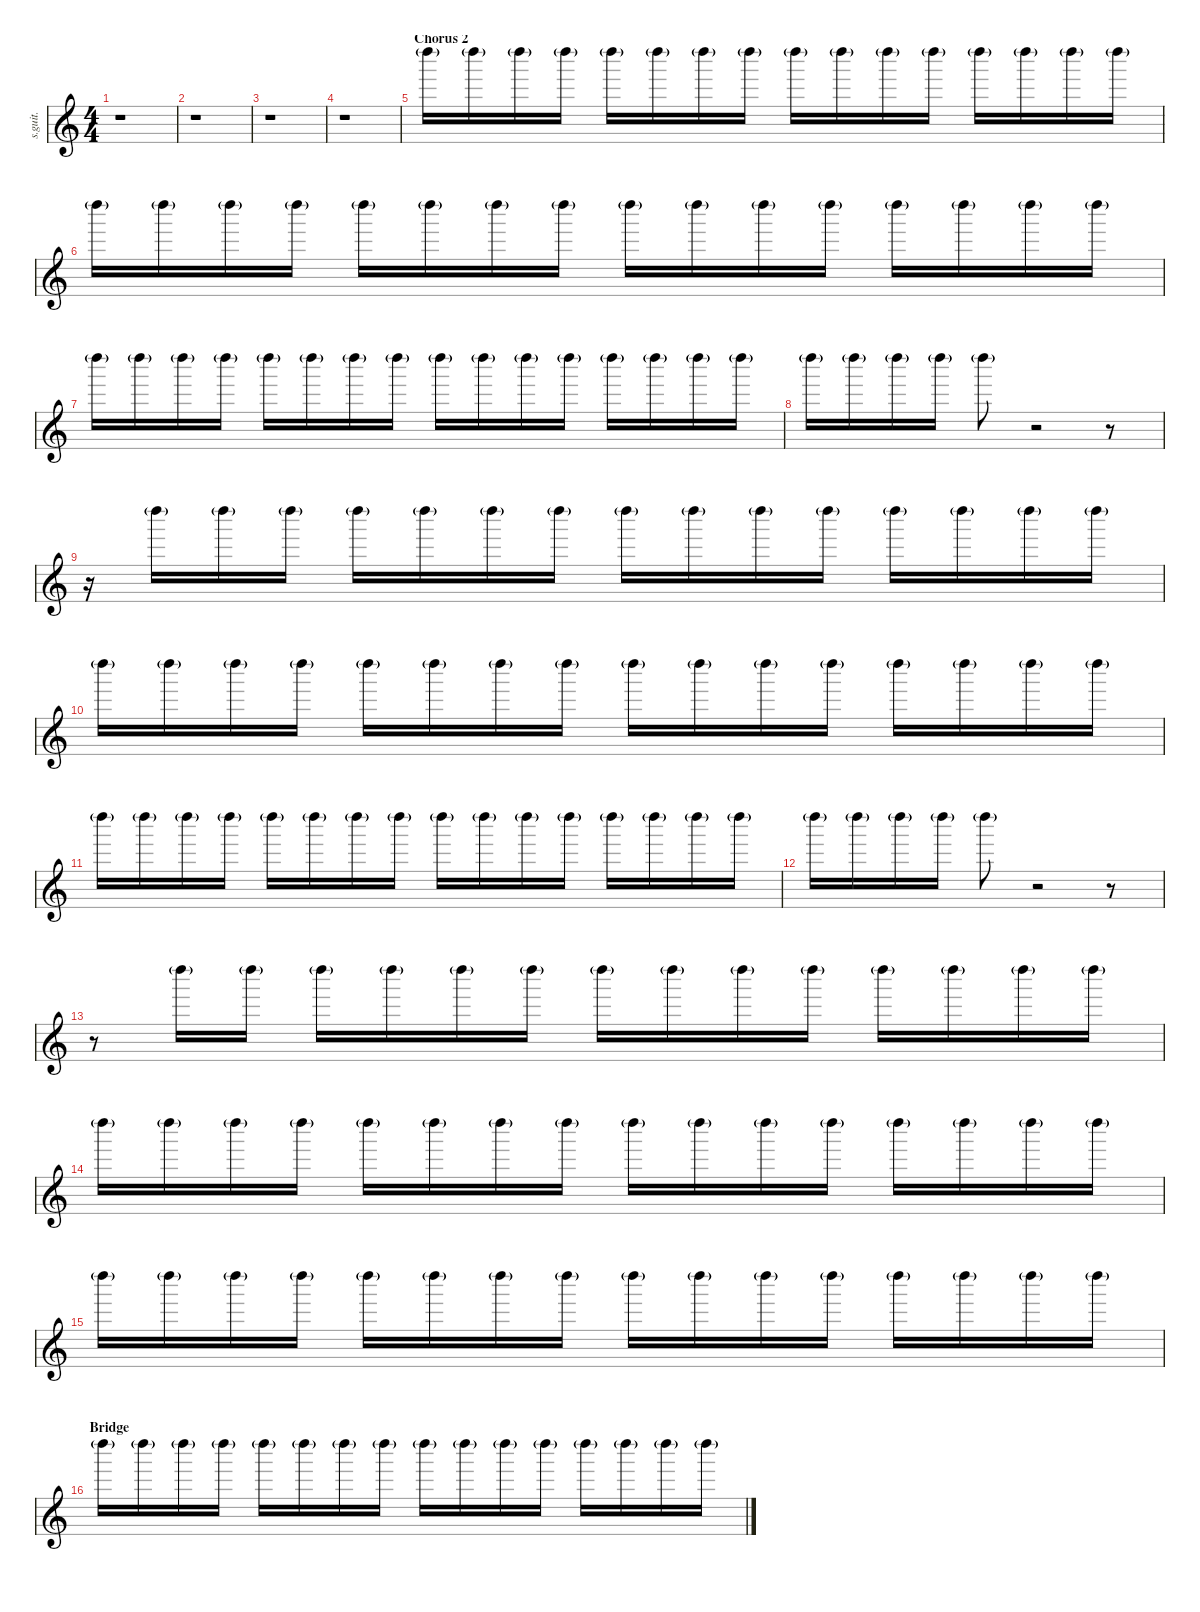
\defaultSystemsLayout 4
\hideDynamics
\bracketExtendMode nobrackets
\track ("Shaker" "s.guit.") {instrument percussion}
\staff {score}
\articulation defaults
\ts (4 4)
\tempo (90 hide)
\clef g2
\ks c
r.1{dy mp} |
\tempo (89 hide)
r.1 |
\tempo (90 hide)
r.1 |
r.1 |
\section ("" "Chorus 2")
\tempo (89 hide)
"Left Maraca (hit)"{g}.16{lyrics (0 "") lyrics (1 "") lyrics (2 "") lyrics (3 "") lyrics (4 "")} "Left Maraca (hit)"{g}.16{lyrics (0 "") lyrics (1 "") lyrics (2 "") lyrics (3 "") lyrics (4 "") dy p} "Left Maraca (hit)"{g}.16{lyrics (0 "") lyrics (1 "") lyrics (2 "") lyrics (3 "") lyrics (4 "")} "Left Maraca (hit)"{g}.16{lyrics (0 "") lyrics (1 "") lyrics (2 "") lyrics (3 "") lyrics (4 "")} "Left Maraca (hit)"{g}.16{lyrics (0 "") lyrics (1 "") lyrics (2 "") lyrics (3 "") lyrics (4 "") dy mp} "Left Maraca (hit)"{g}.16{lyrics (0 "") lyrics (1 "") lyrics (2 "") lyrics (3 "") lyrics (4 "") dy p} "Left Maraca (hit)"{g}.16{lyrics (0 "") lyrics (1 "") lyrics (2 "") lyrics (3 "") lyrics (4 "")} "Left Maraca (hit)"{g}.16{lyrics (0 "") lyrics (1 "") lyrics (2 "") lyrics (3 "") lyrics (4 "")} "Left Maraca (hit)"{g}.16{lyrics (0 "") lyrics (1 "") lyrics (2 "") lyrics (3 "") lyrics (4 "") dy mp} "Left Maraca (hit)"{g}.16{lyrics (0 "") lyrics (1 "") lyrics (2 "") lyrics (3 "") lyrics (4 "") dy p} "Left Maraca (hit)"{g}.16{lyrics (0 "") lyrics (1 "") lyrics (2 "") lyrics (3 "") lyrics (4 "")} "Left Maraca (hit)"{g}.16{lyrics (0 "") lyrics (1 "") lyrics (2 "") lyrics (3 "") lyrics (4 "")} "Left Maraca (hit)"{g}.16{lyrics (0 "") lyrics (1 "") lyrics (2 "") lyrics (3 "") lyrics (4 "") dy mp} "Left Maraca (hit)"{g}.16{lyrics (0 "") lyrics (1 "") lyrics (2 "") lyrics (3 "") lyrics (4 "") dy p} "Left Maraca (hit)"{g}.16{lyrics (0 "") lyrics (1 "") lyrics (2 "") lyrics (3 "") lyrics (4 "")} "Left Maraca (hit)"{g}.16{lyrics (0 "") lyrics (1 "") lyrics (2 "") lyrics (3 "") lyrics (4 "")} |
"Left Maraca (hit)"{g}.16{lyrics (0 "") lyrics (1 "") lyrics (2 "") lyrics (3 "") lyrics (4 "") dy mp} "Left Maraca (hit)"{g}.16{lyrics (0 "") lyrics (1 "") lyrics (2 "") lyrics (3 "") lyrics (4 "") dy p} "Left Maraca (hit)"{g}.16{lyrics (0 "") lyrics (1 "") lyrics (2 "") lyrics (3 "") lyrics (4 "")} "Left Maraca (hit)"{g}.16{lyrics (0 "") lyrics (1 "") lyrics (2 "") lyrics (3 "") lyrics (4 "")} "Left Maraca (hit)"{g}.16{lyrics (0 "") lyrics (1 "") lyrics (2 "") lyrics (3 "") lyrics (4 "") dy mp} "Left Maraca (hit)"{g}.16{lyrics (0 "") lyrics (1 "") lyrics (2 "") lyrics (3 "") lyrics (4 "") dy p} "Left Maraca (hit)"{g}.16{lyrics (0 "") lyrics (1 "") lyrics (2 "") lyrics (3 "") lyrics (4 "")} "Left Maraca (hit)"{g}.16{lyrics (0 "") lyrics (1 "") lyrics (2 "") lyrics (3 "") lyrics (4 "")} "Left Maraca (hit)"{g}.16{lyrics (0 "") lyrics (1 "") lyrics (2 "") lyrics (3 "") lyrics (4 "") dy mp} "Left Maraca (hit)"{g}.16{lyrics (0 "") lyrics (1 "") lyrics (2 "") lyrics (3 "") lyrics (4 "") dy p} "Left Maraca (hit)"{g}.16{lyrics (0 "") lyrics (1 "") lyrics (2 "") lyrics (3 "") lyrics (4 "")} "Left Maraca (hit)"{g}.16{lyrics (0 "") lyrics (1 "") lyrics (2 "") lyrics (3 "") lyrics (4 "")} "Left Maraca (hit)"{g}.16{lyrics (0 "") lyrics (1 "") lyrics (2 "") lyrics (3 "") lyrics (4 "") dy mp} "Left Maraca (hit)"{g}.16{lyrics (0 "") lyrics (1 "") lyrics (2 "") lyrics (3 "") lyrics (4 "") dy p} "Left Maraca (hit)"{g}.16{lyrics (0 "") lyrics (1 "") lyrics (2 "") lyrics (3 "") lyrics (4 "")} "Left Maraca (hit)"{g}.16{lyrics (0 "") lyrics (1 "") lyrics (2 "") lyrics (3 "") lyrics (4 "")} |
"Left Maraca (hit)"{g}.16{lyrics (0 "") lyrics (1 "") lyrics (2 "") lyrics (3 "") lyrics (4 "") dy mp} "Left Maraca (hit)"{g}.16{lyrics (0 "") lyrics (1 "") lyrics (2 "") lyrics (3 "") lyrics (4 "") dy p} "Left Maraca (hit)"{g}.16{lyrics (0 "") lyrics (1 "") lyrics (2 "") lyrics (3 "") lyrics (4 "")} "Left Maraca (hit)"{g}.16{lyrics (0 "") lyrics (1 "") lyrics (2 "") lyrics (3 "") lyrics (4 "")} "Left Maraca (hit)"{g}.16{lyrics (0 "") lyrics (1 "") lyrics (2 "") lyrics (3 "") lyrics (4 "") dy mp} "Left Maraca (hit)"{g}.16{lyrics (0 "") lyrics (1 "") lyrics (2 "") lyrics (3 "") lyrics (4 "") dy p} "Left Maraca (hit)"{g}.16{lyrics (0 "") lyrics (1 "") lyrics (2 "") lyrics (3 "") lyrics (4 "")} "Left Maraca (hit)"{g}.16{lyrics (0 "") lyrics (1 "") lyrics (2 "") lyrics (3 "") lyrics (4 "")} "Left Maraca (hit)"{g}.16{lyrics (0 "") lyrics (1 "") lyrics (2 "") lyrics (3 "") lyrics (4 "") dy mp} "Left Maraca (hit)"{g}.16{lyrics (0 "") lyrics (1 "") lyrics (2 "") lyrics (3 "") lyrics (4 "") dy p} "Left Maraca (hit)"{g}.16{lyrics (0 "") lyrics (1 "") lyrics (2 "") lyrics (3 "") lyrics (4 "")} "Left Maraca (hit)"{g}.16{lyrics (0 "") lyrics (1 "") lyrics (2 "") lyrics (3 "") lyrics (4 "")} "Left Maraca (hit)"{g}.16{lyrics (0 "") lyrics (1 "") lyrics (2 "") lyrics (3 "") lyrics (4 "") dy mp} "Left Maraca (hit)"{g}.16{lyrics (0 "") lyrics (1 "") lyrics (2 "") lyrics (3 "") lyrics (4 "") dy p} "Left Maraca (hit)"{g}.16{lyrics (0 "") lyrics (1 "") lyrics (2 "") lyrics (3 "") lyrics (4 "")} "Left Maraca (hit)"{g}.16{lyrics (0 "") lyrics (1 "") lyrics (2 "") lyrics (3 "") lyrics (4 "")} |
"Left Maraca (hit)"{g}.16{lyrics (0 "") lyrics (1 "") lyrics (2 "") lyrics (3 "") lyrics (4 "") dy mp} "Left Maraca (hit)"{g}.16{lyrics (0 "") lyrics (1 "") lyrics (2 "") lyrics (3 "") lyrics (4 "") dy p} "Left Maraca (hit)"{g}.16{lyrics (0 "") lyrics (1 "") lyrics (2 "") lyrics (3 "") lyrics (4 "")} "Left Maraca (hit)"{g}.16{lyrics (0 "") lyrics (1 "") lyrics (2 "") lyrics (3 "") lyrics (4 "")} "Left Maraca (hit)"{g}.8{lyrics (0 "") lyrics (1 "") lyrics (2 "") lyrics (3 "") lyrics (4 "") dy mp} r.2 r.8 |
r.16 "Left Maraca (hit)"{g}.16{lyrics (0 "") lyrics (1 "") lyrics (2 "") lyrics (3 "") lyrics (4 "") dy p} "Left Maraca (hit)"{g}.16{lyrics (0 "") lyrics (1 "") lyrics (2 "") lyrics (3 "") lyrics (4 "")} "Left Maraca (hit)"{g}.16{lyrics (0 "") lyrics (1 "") lyrics (2 "") lyrics (3 "") lyrics (4 "")} "Left Maraca (hit)"{g}.16{lyrics (0 "") lyrics (1 "") lyrics (2 "") lyrics (3 "") lyrics (4 "") dy mp} "Left Maraca (hit)"{g}.16{lyrics (0 "") lyrics (1 "") lyrics (2 "") lyrics (3 "") lyrics (4 "") dy p} "Left Maraca (hit)"{g}.16{lyrics (0 "") lyrics (1 "") lyrics (2 "") lyrics (3 "") lyrics (4 "")} "Left Maraca (hit)"{g}.16{lyrics (0 "") lyrics (1 "") lyrics (2 "") lyrics (3 "") lyrics (4 "")} "Left Maraca (hit)"{g}.16{lyrics (0 "") lyrics (1 "") lyrics (2 "") lyrics (3 "") lyrics (4 "") dy mp} "Left Maraca (hit)"{g}.16{lyrics (0 "") lyrics (1 "") lyrics (2 "") lyrics (3 "") lyrics (4 "") dy p} "Left Maraca (hit)"{g}.16{lyrics (0 "") lyrics (1 "") lyrics (2 "") lyrics (3 "") lyrics (4 "")} "Left Maraca (hit)"{g}.16{lyrics (0 "") lyrics (1 "") lyrics (2 "") lyrics (3 "") lyrics (4 "")} "Left Maraca (hit)"{g}.16{lyrics (0 "") lyrics (1 "") lyrics (2 "") lyrics (3 "") lyrics (4 "") dy mp} "Left Maraca (hit)"{g}.16{lyrics (0 "") lyrics (1 "") lyrics (2 "") lyrics (3 "") lyrics (4 "") dy p} "Left Maraca (hit)"{g}.16{lyrics (0 "") lyrics (1 "") lyrics (2 "") lyrics (3 "") lyrics (4 "")} "Left Maraca (hit)"{g}.16{lyrics (0 "") lyrics (1 "") lyrics (2 "") lyrics (3 "") lyrics (4 "")} |
"Left Maraca (hit)"{g}.16{lyrics (0 "") lyrics (1 "") lyrics (2 "") lyrics (3 "") lyrics (4 "") dy mp} "Left Maraca (hit)"{g}.16{lyrics (0 "") lyrics (1 "") lyrics (2 "") lyrics (3 "") lyrics (4 "") dy p} "Left Maraca (hit)"{g}.16{lyrics (0 "") lyrics (1 "") lyrics (2 "") lyrics (3 "") lyrics (4 "")} "Left Maraca (hit)"{g}.16{lyrics (0 "") lyrics (1 "") lyrics (2 "") lyrics (3 "") lyrics (4 "")} "Left Maraca (hit)"{g}.16{lyrics (0 "") lyrics (1 "") lyrics (2 "") lyrics (3 "") lyrics (4 "") dy mp} "Left Maraca (hit)"{g}.16{lyrics (0 "") lyrics (1 "") lyrics (2 "") lyrics (3 "") lyrics (4 "") dy p} "Left Maraca (hit)"{g}.16{lyrics (0 "") lyrics (1 "") lyrics (2 "") lyrics (3 "") lyrics (4 "")} "Left Maraca (hit)"{g}.16{lyrics (0 "") lyrics (1 "") lyrics (2 "") lyrics (3 "") lyrics (4 "")} "Left Maraca (hit)"{g}.16{lyrics (0 "") lyrics (1 "") lyrics (2 "") lyrics (3 "") lyrics (4 "") dy mp} "Left Maraca (hit)"{g}.16{lyrics (0 "") lyrics (1 "") lyrics (2 "") lyrics (3 "") lyrics (4 "") dy p} "Left Maraca (hit)"{g}.16{lyrics (0 "") lyrics (1 "") lyrics (2 "") lyrics (3 "") lyrics (4 "")} "Left Maraca (hit)"{g}.16{lyrics (0 "") lyrics (1 "") lyrics (2 "") lyrics (3 "") lyrics (4 "")} "Left Maraca (hit)"{g}.16{lyrics (0 "") lyrics (1 "") lyrics (2 "") lyrics (3 "") lyrics (4 "") dy mp} "Left Maraca (hit)"{g}.16{lyrics (0 "") lyrics (1 "") lyrics (2 "") lyrics (3 "") lyrics (4 "") dy p} "Left Maraca (hit)"{g}.16{lyrics (0 "") lyrics (1 "") lyrics (2 "") lyrics (3 "") lyrics (4 "")} "Left Maraca (hit)"{g}.16{lyrics (0 "") lyrics (1 "") lyrics (2 "") lyrics (3 "") lyrics (4 "")} |
"Left Maraca (hit)"{g}.16{lyrics (0 "") lyrics (1 "") lyrics (2 "") lyrics (3 "") lyrics (4 "") dy mp} "Left Maraca (hit)"{g}.16{lyrics (0 "") lyrics (1 "") lyrics (2 "") lyrics (3 "") lyrics (4 "") dy p} "Left Maraca (hit)"{g}.16{lyrics (0 "") lyrics (1 "") lyrics (2 "") lyrics (3 "") lyrics (4 "")} "Left Maraca (hit)"{g}.16{lyrics (0 "") lyrics (1 "") lyrics (2 "") lyrics (3 "") lyrics (4 "")} "Left Maraca (hit)"{g}.16{lyrics (0 "") lyrics (1 "") lyrics (2 "") lyrics (3 "") lyrics (4 "") dy mp} "Left Maraca (hit)"{g}.16{lyrics (0 "") lyrics (1 "") lyrics (2 "") lyrics (3 "") lyrics (4 "") dy p} "Left Maraca (hit)"{g}.16{lyrics (0 "") lyrics (1 "") lyrics (2 "") lyrics (3 "") lyrics (4 "")} "Left Maraca (hit)"{g}.16{lyrics (0 "") lyrics (1 "") lyrics (2 "") lyrics (3 "") lyrics (4 "")} "Left Maraca (hit)"{g}.16{lyrics (0 "") lyrics (1 "") lyrics (2 "") lyrics (3 "") lyrics (4 "") dy mp} "Left Maraca (hit)"{g}.16{lyrics (0 "") lyrics (1 "") lyrics (2 "") lyrics (3 "") lyrics (4 "") dy p} "Left Maraca (hit)"{g}.16{lyrics (0 "") lyrics (1 "") lyrics (2 "") lyrics (3 "") lyrics (4 "")} "Left Maraca (hit)"{g}.16{lyrics (0 "") lyrics (1 "") lyrics (2 "") lyrics (3 "") lyrics (4 "")} "Left Maraca (hit)"{g}.16{lyrics (0 "") lyrics (1 "") lyrics (2 "") lyrics (3 "") lyrics (4 "") dy mp} "Left Maraca (hit)"{g}.16{lyrics (0 "") lyrics (1 "") lyrics (2 "") lyrics (3 "") lyrics (4 "") dy p} "Left Maraca (hit)"{g}.16{lyrics (0 "") lyrics (1 "") lyrics (2 "") lyrics (3 "") lyrics (4 "")} "Left Maraca (hit)"{g}.16{lyrics (0 "") lyrics (1 "") lyrics (2 "") lyrics (3 "") lyrics (4 "")} |
\tempo (86 hide)
"Left Maraca (hit)"{g}.16{lyrics (0 "") lyrics (1 "") lyrics (2 "") lyrics (3 "") lyrics (4 "") dy mp} "Left Maraca (hit)"{g}.16{lyrics (0 "") lyrics (1 "") lyrics (2 "") lyrics (3 "") lyrics (4 "") dy p} "Left Maraca (hit)"{g}.16{lyrics (0 "") lyrics (1 "") lyrics (2 "") lyrics (3 "") lyrics (4 "")} "Left Maraca (hit)"{g}.16{lyrics (0 "") lyrics (1 "") lyrics (2 "") lyrics (3 "") lyrics (4 "")} "Left Maraca (hit)"{g}.8{lyrics (0 "") lyrics (1 "") lyrics (2 "") lyrics (3 "") lyrics (4 "") dy mp} r.2 r.8 |
\tempo (87 hide)
r.8 "Left Maraca (hit)"{g}.16{lyrics (0 "") lyrics (1 "") lyrics (2 "") lyrics (3 "") lyrics (4 "") dy p} "Left Maraca (hit)"{g}.16{lyrics (0 "") lyrics (1 "") lyrics (2 "") lyrics (3 "") lyrics (4 "")} "Left Maraca (hit)"{g}.16{lyrics (0 "") lyrics (1 "") lyrics (2 "") lyrics (3 "") lyrics (4 "") dy mp} "Left Maraca (hit)"{g}.16{lyrics (0 "") lyrics (1 "") lyrics (2 "") lyrics (3 "") lyrics (4 "") dy p} "Left Maraca (hit)"{g}.16{lyrics (0 "") lyrics (1 "") lyrics (2 "") lyrics (3 "") lyrics (4 "")} "Left Maraca (hit)"{g}.16{lyrics (0 "") lyrics (1 "") lyrics (2 "") lyrics (3 "") lyrics (4 "")} "Left Maraca (hit)"{g}.16{lyrics (0 "") lyrics (1 "") lyrics (2 "") lyrics (3 "") lyrics (4 "") dy mp} "Left Maraca (hit)"{g}.16{lyrics (0 "") lyrics (1 "") lyrics (2 "") lyrics (3 "") lyrics (4 "") dy p} "Left Maraca (hit)"{g}.16{lyrics (0 "") lyrics (1 "") lyrics (2 "") lyrics (3 "") lyrics (4 "")} "Left Maraca (hit)"{g}.16{lyrics (0 "") lyrics (1 "") lyrics (2 "") lyrics (3 "") lyrics (4 "")} "Left Maraca (hit)"{g}.16{lyrics (0 "") lyrics (1 "") lyrics (2 "") lyrics (3 "") lyrics (4 "") dy mp} "Left Maraca (hit)"{g}.16{lyrics (0 "") lyrics (1 "") lyrics (2 "") lyrics (3 "") lyrics (4 "") dy p} "Left Maraca (hit)"{g}.16{lyrics (0 "") lyrics (1 "") lyrics (2 "") lyrics (3 "") lyrics (4 "")} "Left Maraca (hit)"{g}.16{lyrics (0 "") lyrics (1 "") lyrics (2 "") lyrics (3 "") lyrics (4 "")} |
\tempo (89 hide)
"Left Maraca (hit)"{g}.16{lyrics (0 "") lyrics (1 "") lyrics (2 "") lyrics (3 "") lyrics (4 "") dy mp} "Left Maraca (hit)"{g}.16{lyrics (0 "") lyrics (1 "") lyrics (2 "") lyrics (3 "") lyrics (4 "") dy p} "Left Maraca (hit)"{g}.16{lyrics (0 "") lyrics (1 "") lyrics (2 "") lyrics (3 "") lyrics (4 "")} "Left Maraca (hit)"{g}.16{lyrics (0 "") lyrics (1 "") lyrics (2 "") lyrics (3 "") lyrics (4 "")} "Left Maraca (hit)"{g}.16{lyrics (0 "") lyrics (1 "") lyrics (2 "") lyrics (3 "") lyrics (4 "") dy mp} "Left Maraca (hit)"{g}.16{lyrics (0 "") lyrics (1 "") lyrics (2 "") lyrics (3 "") lyrics (4 "") dy p} "Left Maraca (hit)"{g}.16{lyrics (0 "") lyrics (1 "") lyrics (2 "") lyrics (3 "") lyrics (4 "")} "Left Maraca (hit)"{g}.16{lyrics (0 "") lyrics (1 "") lyrics (2 "") lyrics (3 "") lyrics (4 "")} "Left Maraca (hit)"{g}.16{lyrics (0 "") lyrics (1 "") lyrics (2 "") lyrics (3 "") lyrics (4 "") dy mp} "Left Maraca (hit)"{g}.16{lyrics (0 "") lyrics (1 "") lyrics (2 "") lyrics (3 "") lyrics (4 "") dy p} "Left Maraca (hit)"{g}.16{lyrics (0 "") lyrics (1 "") lyrics (2 "") lyrics (3 "") lyrics (4 "")} "Left Maraca (hit)"{g}.16{lyrics (0 "") lyrics (1 "") lyrics (2 "") lyrics (3 "") lyrics (4 "")} "Left Maraca (hit)"{g}.16{lyrics (0 "") lyrics (1 "") lyrics (2 "") lyrics (3 "") lyrics (4 "") dy mp} "Left Maraca (hit)"{g}.16{lyrics (0 "") lyrics (1 "") lyrics (2 "") lyrics (3 "") lyrics (4 "") dy p} "Left Maraca (hit)"{g}.16{lyrics (0 "") lyrics (1 "") lyrics (2 "") lyrics (3 "") lyrics (4 "")} "Left Maraca (hit)"{g}.16{lyrics (0 "") lyrics (1 "") lyrics (2 "") lyrics (3 "") lyrics (4 "")} |
\tempo (90 hide)
"Left Maraca (hit)"{g}.16{lyrics (0 "") lyrics (1 "") lyrics (2 "") lyrics (3 "") lyrics (4 "") dy mp} "Left Maraca (hit)"{g}.16{lyrics (0 "") lyrics (1 "") lyrics (2 "") lyrics (3 "") lyrics (4 "") dy p} "Left Maraca (hit)"{g}.16{lyrics (0 "") lyrics (1 "") lyrics (2 "") lyrics (3 "") lyrics (4 "")} "Left Maraca (hit)"{g}.16{lyrics (0 "") lyrics (1 "") lyrics (2 "") lyrics (3 "") lyrics (4 "")} "Left Maraca (hit)"{g}.16{lyrics (0 "") lyrics (1 "") lyrics (2 "") lyrics (3 "") lyrics (4 "") dy mp} "Left Maraca (hit)"{g}.16{lyrics (0 "") lyrics (1 "") lyrics (2 "") lyrics (3 "") lyrics (4 "") dy p} "Left Maraca (hit)"{g}.16{lyrics (0 "") lyrics (1 "") lyrics (2 "") lyrics (3 "") lyrics (4 "")} "Left Maraca (hit)"{g}.16{lyrics (0 "") lyrics (1 "") lyrics (2 "") lyrics (3 "") lyrics (4 "")} "Left Maraca (hit)"{g}.16{lyrics (0 "") lyrics (1 "") lyrics (2 "") lyrics (3 "") lyrics (4 "") dy mp} "Left Maraca (hit)"{g}.16{lyrics (0 "") lyrics (1 "") lyrics (2 "") lyrics (3 "") lyrics (4 "") dy p} "Left Maraca (hit)"{g}.16{lyrics (0 "") lyrics (1 "") lyrics (2 "") lyrics (3 "") lyrics (4 "")} "Left Maraca (hit)"{g}.16{lyrics (0 "") lyrics (1 "") lyrics (2 "") lyrics (3 "") lyrics (4 "")} "Left Maraca (hit)"{g}.16{lyrics (0 "") lyrics (1 "") lyrics (2 "") lyrics (3 "") lyrics (4 "") dy mp} "Left Maraca (hit)"{g}.16{lyrics (0 "") lyrics (1 "") lyrics (2 "") lyrics (3 "") lyrics (4 "") dy p} "Left Maraca (hit)"{g}.16{lyrics (0 "") lyrics (1 "") lyrics (2 "") lyrics (3 "") lyrics (4 "")} "Left Maraca (hit)"{g}.16{lyrics (0 "") lyrics (1 "") lyrics (2 "") lyrics (3 "") lyrics (4 "")} |
\section ("" "Bridge")
\tempo (89 hide)
"Left Maraca (hit)"{g}.16{lyrics (0 "") lyrics (1 "") lyrics (2 "") lyrics (3 "") lyrics (4 "") dy mp} "Left Maraca (hit)"{g}.16{lyrics (0 "") lyrics (1 "") lyrics (2 "") lyrics (3 "") lyrics (4 "") dy p} "Left Maraca (hit)"{g}.16{lyrics (0 "") lyrics (1 "") lyrics (2 "") lyrics (3 "") lyrics (4 "")} "Left Maraca (hit)"{g}.16{lyrics (0 "") lyrics (1 "") lyrics (2 "") lyrics (3 "") lyrics (4 "")} "Left Maraca (hit)"{g}.16{lyrics (0 "") lyrics (1 "") lyrics (2 "") lyrics (3 "") lyrics (4 "") dy mp} "Left Maraca (hit)"{g}.16{lyrics (0 "") lyrics (1 "") lyrics (2 "") lyrics (3 "") lyrics (4 "") dy p} "Left Maraca (hit)"{g}.16{lyrics (0 "") lyrics (1 "") lyrics (2 "") lyrics (3 "") lyrics (4 "")} "Left Maraca (hit)"{g}.16{lyrics (0 "") lyrics (1 "") lyrics (2 "") lyrics (3 "") lyrics (4 "")} "Left Maraca (hit)"{g}.16{lyrics (0 "") lyrics (1 "") lyrics (2 "") lyrics (3 "") lyrics (4 "") dy mp} "Left Maraca (hit)"{g}.16{lyrics (0 "") lyrics (1 "") lyrics (2 "") lyrics (3 "") lyrics (4 "") dy p} "Left Maraca (hit)"{g}.16{lyrics (0 "") lyrics (1 "") lyrics (2 "") lyrics (3 "") lyrics (4 "")} "Left Maraca (hit)"{g}.16{lyrics (0 "") lyrics (1 "") lyrics (2 "") lyrics (3 "") lyrics (4 "")} "Left Maraca (hit)"{g}.16{lyrics (0 "") lyrics (1 "") lyrics (2 "") lyrics (3 "") lyrics (4 "") dy mp} "Left Maraca (hit)"{g}.16{lyrics (0 "") lyrics (1 "") lyrics (2 "") lyrics (3 "") lyrics (4 "") dy p} "Left Maraca (hit)"{g}.16{lyrics (0 "") lyrics (1 "") lyrics (2 "") lyrics (3 "") lyrics (4 "")} "Left Maraca (hit)"{g}.16{lyrics (0 "") lyrics (1 "") lyrics (2 "") lyrics (3 "") lyrics (4 "")}
